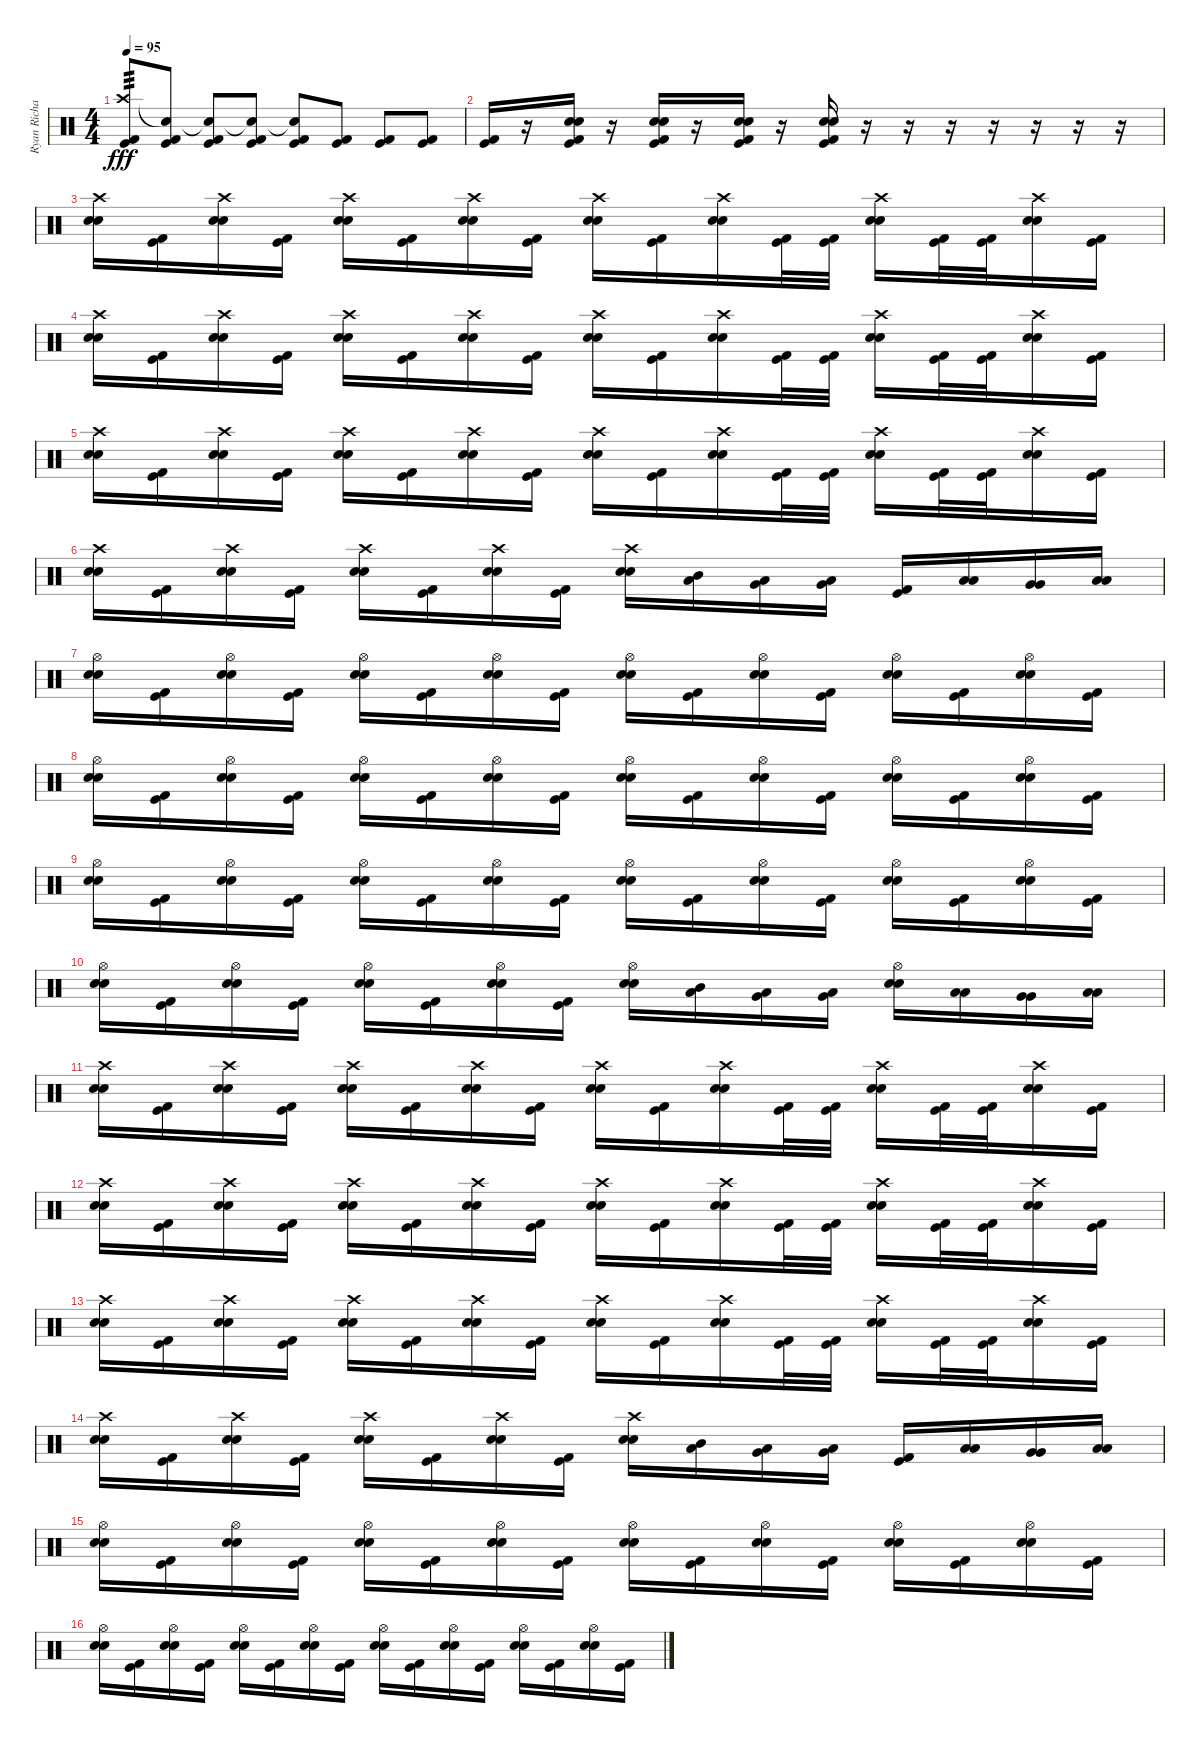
\track ("Ryan Richards" "Ryan Richa") {instrument percussion}
\staff {score}
\articulation defaults
\ts (4 4)
\tempo 95
\clef neutral
\ks c
("Kick (hit)" "Crash high (hit)" "Kick (hit) 2").8{tp 3 dy fff} ("Kick (hit)" "Snare (hit)"{t} "Kick (hit) 2").8 ("Kick (hit)" "Snare (hit)"{t} "Kick (hit) 2").8 ("Kick (hit)" "Snare (hit)"{t} "Kick (hit) 2").8 ("Kick (hit)" "Snare (hit)"{t} "Kick (hit) 2").8 ("Kick (hit)" "Kick (hit) 2").8 ("Kick (hit)" "Kick (hit) 2").8 ("Kick (hit)" "Kick (hit) 2").8 |
("Kick (hit)" "Kick (hit) 2").16 r.16 ("Kick (hit)" "Snare (hit) 2" "Electric Snare (hit)" "Kick (hit) 2").16 r.16 ("Kick (hit)" "Snare (hit) 2" "Electric Snare (hit)" "Kick (hit) 2").16 r.16 ("Kick (hit)" "Snare (hit) 2" "Electric Snare (hit)" "Kick (hit) 2").16 r.16 ("Kick (hit)" "Snare (hit) 2" "Electric Snare (hit)" "Kick (hit) 2").16 r.16 r.16 r.16 r.16 r.16 r.16 r.16 |
("Snare (hit) 2" "Crash high (hit)" "Electric Snare (hit)").16 ("Kick (hit)" "Kick (hit) 2").16 ("Snare (hit) 2" "Crash high (hit)" "Electric Snare (hit)").16 ("Kick (hit)" "Kick (hit) 2").16 ("Snare (hit) 2" "Crash high (hit)" "Electric Snare (hit)").16 ("Kick (hit)" "Kick (hit) 2").16 ("Snare (hit) 2" "Crash high (hit)" "Electric Snare (hit)").16 ("Kick (hit)" "Kick (hit) 2").16 ("Snare (hit) 2" "Crash high (hit)" "Electric Snare (hit)").16 ("Kick (hit)" "Kick (hit) 2").16 ("Snare (hit) 2" "Crash high (hit)" "Electric Snare (hit)").16 ("Kick (hit)" "Kick (hit) 2").32 ("Kick (hit)" "Kick (hit) 2").32 ("Snare (hit) 2" "Crash high (hit)" "Electric Snare (hit)").16 ("Kick (hit)" "Kick (hit) 2").32 ("Kick (hit)" "Kick (hit) 2").32 ("Snare (hit) 2" "Crash high (hit)" "Electric Snare (hit)").16 ("Kick (hit)" "Kick (hit) 2").16 |
("Snare (hit) 2" "Crash high (hit)" "Electric Snare (hit)").16 ("Kick (hit)" "Kick (hit) 2").16 ("Snare (hit) 2" "Crash high (hit)" "Electric Snare (hit)").16 ("Kick (hit)" "Kick (hit) 2").16 ("Snare (hit) 2" "Crash high (hit)" "Electric Snare (hit)").16 ("Kick (hit)" "Kick (hit) 2").16 ("Snare (hit) 2" "Crash high (hit)" "Electric Snare (hit)").16 ("Kick (hit)" "Kick (hit) 2").16 ("Snare (hit) 2" "Crash high (hit)" "Electric Snare (hit)").16 ("Kick (hit)" "Kick (hit) 2").16 ("Snare (hit) 2" "Crash high (hit)" "Electric Snare (hit)").16 ("Kick (hit)" "Kick (hit) 2").32 ("Kick (hit)" "Kick (hit) 2").32 ("Snare (hit) 2" "Crash high (hit)" "Electric Snare (hit)").16 ("Kick (hit)" "Kick (hit) 2").32 ("Kick (hit)" "Kick (hit) 2").32 ("Snare (hit) 2" "Crash high (hit)" "Electric Snare (hit)").16 ("Kick (hit)" "Kick (hit) 2").16 |
("Snare (hit) 2" "Crash high (hit)" "Electric Snare (hit)").16 ("Kick (hit)" "Kick (hit) 2").16 ("Snare (hit) 2" "Crash high (hit)" "Electric Snare (hit)").16 ("Kick (hit)" "Kick (hit) 2").16 ("Snare (hit) 2" "Crash high (hit)" "Electric Snare (hit)").16 ("Kick (hit)" "Kick (hit) 2").16 ("Snare (hit) 2" "Crash high (hit)" "Electric Snare (hit)").16 ("Kick (hit)" "Kick (hit) 2").16 ("Snare (hit) 2" "Crash high (hit)" "Electric Snare (hit)").16 ("Kick (hit)" "Kick (hit) 2").16 ("Snare (hit) 2" "Crash high (hit)" "Electric Snare (hit)").16 ("Kick (hit)" "Kick (hit) 2").32 ("Kick (hit)" "Kick (hit) 2").32 ("Snare (hit) 2" "Crash high (hit)" "Electric Snare (hit)").16 ("Kick (hit)" "Kick (hit) 2").32 ("Kick (hit)" "Kick (hit) 2").32 ("Snare (hit) 2" "Crash high (hit)" "Electric Snare (hit)").16 ("Kick (hit)" "Kick (hit) 2").16 |
("Snare (hit) 2" "Crash high (hit)" "Electric Snare (hit)").16 ("Kick (hit)" "Kick (hit) 2").16 ("Snare (hit) 2" "Crash high (hit)" "Electric Snare (hit)").16 ("Kick (hit)" "Kick (hit) 2").16 ("Snare (hit) 2" "Crash high (hit)" "Electric Snare (hit)").16 ("Kick (hit)" "Kick (hit) 2").16 ("Snare (hit) 2" "Crash high (hit)" "Electric Snare (hit)").16 ("Kick (hit)" "Kick (hit) 2").16 ("Snare (hit) 2" "Crash high (hit)" "Electric Snare (hit)").16 ("Mid Tom (hit)" "Low Tom (hit)").16 ("Low Tom (hit)" "Very Low Tom (hit)").16 ("Very Low Tom (hit)" "Low Floor Tom (hit)").16 ("Kick (hit)" "Kick (hit) 2").16 ("Low Tom (hit)" "Low Tom (hit)").16 ("Very Low Tom (hit)" "Very Low Tom (hit)").16 ("Low Floor Tom (hit)" "Low Floor Tom (hit)").16 |
("Snare (hit) 2" "Hi-Hat (open)" "Electric Snare (hit)").16 ("Kick (hit)" "Kick (hit) 2").16 ("Snare (hit) 2" "Hi-Hat (open)" "Electric Snare (hit)").16 ("Kick (hit)" "Kick (hit) 2").16 ("Snare (hit) 2" "Hi-Hat (open)" "Electric Snare (hit)").16 ("Kick (hit)" "Kick (hit) 2").16 ("Snare (hit) 2" "Hi-Hat (open)" "Electric Snare (hit)").16 ("Kick (hit)" "Kick (hit) 2").16 ("Snare (hit) 2" "Hi-Hat (open)" "Electric Snare (hit)").16 ("Kick (hit)" "Kick (hit) 2").16 ("Snare (hit) 2" "Hi-Hat (open)" "Electric Snare (hit)").16 ("Kick (hit)" "Kick (hit) 2").16 ("Snare (hit) 2" "Hi-Hat (open)" "Electric Snare (hit)").16 ("Kick (hit)" "Kick (hit) 2").16 ("Snare (hit) 2" "Hi-Hat (open)" "Electric Snare (hit)").16 ("Kick (hit)" "Kick (hit) 2").16 |
("Snare (hit) 2" "Hi-Hat (open)" "Electric Snare (hit)").16 ("Kick (hit)" "Kick (hit) 2").16 ("Snare (hit) 2" "Hi-Hat (open)" "Electric Snare (hit)").16 ("Kick (hit)" "Kick (hit) 2").16 ("Snare (hit) 2" "Hi-Hat (open)" "Electric Snare (hit)").16 ("Kick (hit)" "Kick (hit) 2").16 ("Snare (hit) 2" "Hi-Hat (open)" "Electric Snare (hit)").16 ("Kick (hit)" "Kick (hit) 2").16 ("Snare (hit) 2" "Hi-Hat (open)" "Electric Snare (hit)").16 ("Kick (hit)" "Kick (hit) 2").16 ("Snare (hit) 2" "Hi-Hat (open)" "Electric Snare (hit)").16 ("Kick (hit)" "Kick (hit) 2").16 ("Snare (hit) 2" "Hi-Hat (open)" "Electric Snare (hit)").16 ("Kick (hit)" "Kick (hit) 2").16 ("Snare (hit) 2" "Hi-Hat (open)" "Electric Snare (hit)").16 ("Kick (hit)" "Kick (hit) 2").16 |
("Snare (hit) 2" "Hi-Hat (open)" "Electric Snare (hit)").16 ("Kick (hit)" "Kick (hit) 2").16 ("Snare (hit) 2" "Hi-Hat (open)" "Electric Snare (hit)").16 ("Kick (hit)" "Kick (hit) 2").16 ("Snare (hit) 2" "Hi-Hat (open)" "Electric Snare (hit)").16 ("Kick (hit)" "Kick (hit) 2").16 ("Snare (hit) 2" "Hi-Hat (open)" "Electric Snare (hit)").16 ("Kick (hit)" "Kick (hit) 2").16 ("Snare (hit) 2" "Hi-Hat (open)" "Electric Snare (hit)").16 ("Kick (hit)" "Kick (hit) 2").16 ("Snare (hit) 2" "Hi-Hat (open)" "Electric Snare (hit)").16 ("Kick (hit)" "Kick (hit) 2").16 ("Snare (hit) 2" "Hi-Hat (open)" "Electric Snare (hit)").16 ("Kick (hit)" "Kick (hit) 2").16 ("Snare (hit) 2" "Hi-Hat (open)" "Electric Snare (hit)").16 ("Kick (hit)" "Kick (hit) 2").16 |
("Snare (hit) 2" "Hi-Hat (open)" "Electric Snare (hit)").16 ("Kick (hit)" "Kick (hit) 2").16 ("Snare (hit) 2" "Hi-Hat (open)" "Electric Snare (hit)").16 ("Kick (hit)" "Kick (hit) 2").16 ("Snare (hit) 2" "Hi-Hat (open)" "Electric Snare (hit)").16 ("Kick (hit)" "Kick (hit) 2").16 ("Snare (hit) 2" "Hi-Hat (open)" "Electric Snare (hit)").16 ("Kick (hit)" "Kick (hit) 2").16 ("Snare (hit) 2" "Hi-Hat (open)" "Electric Snare (hit)").16 ("Mid Tom (hit)" "Low Tom (hit)").16 ("Low Tom (hit)" "Very Low Tom (hit)").16 ("Very Low Tom (hit)" "Low Floor Tom (hit)").16 ("Snare (hit) 2" "Hi-Hat (open)" "Electric Snare (hit)").16 ("Low Tom (hit)" "Low Tom (hit)").16 ("Very Low Tom (hit)" "Very Low Tom (hit)").16 ("Low Floor Tom (hit)" "Low Floor Tom (hit)").16 |
("Snare (hit) 2" "Crash high (hit)" "Electric Snare (hit)").16 ("Kick (hit)" "Kick (hit) 2").16 ("Snare (hit) 2" "Crash high (hit)" "Electric Snare (hit)").16 ("Kick (hit)" "Kick (hit) 2").16 ("Snare (hit) 2" "Crash high (hit)" "Electric Snare (hit)").16 ("Kick (hit)" "Kick (hit) 2").16 ("Snare (hit) 2" "Crash high (hit)" "Electric Snare (hit)").16 ("Kick (hit)" "Kick (hit) 2").16 ("Snare (hit) 2" "Crash high (hit)" "Electric Snare (hit)").16 ("Kick (hit)" "Kick (hit) 2").16 ("Snare (hit) 2" "Crash high (hit)" "Electric Snare (hit)").16 ("Kick (hit)" "Kick (hit) 2").32 ("Kick (hit)" "Kick (hit) 2").32 ("Snare (hit) 2" "Crash high (hit)" "Electric Snare (hit)").16 ("Kick (hit)" "Kick (hit) 2").32 ("Kick (hit)" "Kick (hit) 2").32 ("Snare (hit) 2" "Crash high (hit)" "Electric Snare (hit)").16 ("Kick (hit)" "Kick (hit) 2").16 |
("Snare (hit) 2" "Crash high (hit)" "Electric Snare (hit)").16 ("Kick (hit)" "Kick (hit) 2").16 ("Snare (hit) 2" "Crash high (hit)" "Electric Snare (hit)").16 ("Kick (hit)" "Kick (hit) 2").16 ("Snare (hit) 2" "Crash high (hit)" "Electric Snare (hit)").16 ("Kick (hit)" "Kick (hit) 2").16 ("Snare (hit) 2" "Crash high (hit)" "Electric Snare (hit)").16 ("Kick (hit)" "Kick (hit) 2").16 ("Snare (hit) 2" "Crash high (hit)" "Electric Snare (hit)").16 ("Kick (hit)" "Kick (hit) 2").16 ("Snare (hit) 2" "Crash high (hit)" "Electric Snare (hit)").16 ("Kick (hit)" "Kick (hit) 2").32 ("Kick (hit)" "Kick (hit) 2").32 ("Snare (hit) 2" "Crash high (hit)" "Electric Snare (hit)").16 ("Kick (hit)" "Kick (hit) 2").32 ("Kick (hit)" "Kick (hit) 2").32 ("Snare (hit) 2" "Crash high (hit)" "Electric Snare (hit)").16 ("Kick (hit)" "Kick (hit) 2").16 |
("Snare (hit) 2" "Crash high (hit)" "Electric Snare (hit)").16 ("Kick (hit)" "Kick (hit) 2").16 ("Snare (hit) 2" "Crash high (hit)" "Electric Snare (hit)").16 ("Kick (hit)" "Kick (hit) 2").16 ("Snare (hit) 2" "Crash high (hit)" "Electric Snare (hit)").16 ("Kick (hit)" "Kick (hit) 2").16 ("Snare (hit) 2" "Crash high (hit)" "Electric Snare (hit)").16 ("Kick (hit)" "Kick (hit) 2").16 ("Snare (hit) 2" "Crash high (hit)" "Electric Snare (hit)").16 ("Kick (hit)" "Kick (hit) 2").16 ("Snare (hit) 2" "Crash high (hit)" "Electric Snare (hit)").16 ("Kick (hit)" "Kick (hit) 2").32 ("Kick (hit)" "Kick (hit) 2").32 ("Snare (hit) 2" "Crash high (hit)" "Electric Snare (hit)").16 ("Kick (hit)" "Kick (hit) 2").32 ("Kick (hit)" "Kick (hit) 2").32 ("Snare (hit) 2" "Crash high (hit)" "Electric Snare (hit)").16 ("Kick (hit)" "Kick (hit) 2").16 |
("Snare (hit) 2" "Crash high (hit)" "Electric Snare (hit)").16 ("Kick (hit)" "Kick (hit) 2").16 ("Snare (hit) 2" "Crash high (hit)" "Electric Snare (hit)").16 ("Kick (hit)" "Kick (hit) 2").16 ("Snare (hit) 2" "Crash high (hit)" "Electric Snare (hit)").16 ("Kick (hit)" "Kick (hit) 2").16 ("Snare (hit) 2" "Crash high (hit)" "Electric Snare (hit)").16 ("Kick (hit)" "Kick (hit) 2").16 ("Snare (hit) 2" "Crash high (hit)" "Electric Snare (hit)").16 ("Mid Tom (hit)" "Low Tom (hit)").16 ("Low Tom (hit)" "Very Low Tom (hit)").16 ("Very Low Tom (hit)" "Low Floor Tom (hit)").16 ("Kick (hit)" "Kick (hit) 2").16 ("Low Tom (hit)" "Low Tom (hit)").16 ("Very Low Tom (hit)" "Very Low Tom (hit)").16 ("Low Floor Tom (hit)" "Low Floor Tom (hit)").16 |
("Snare (hit) 2" "Hi-Hat (open)" "Electric Snare (hit)").16 ("Kick (hit)" "Kick (hit) 2").16 ("Snare (hit) 2" "Hi-Hat (open)" "Electric Snare (hit)").16 ("Kick (hit)" "Kick (hit) 2").16 ("Snare (hit) 2" "Hi-Hat (open)" "Electric Snare (hit)").16 ("Kick (hit)" "Kick (hit) 2").16 ("Snare (hit) 2" "Hi-Hat (open)" "Electric Snare (hit)").16 ("Kick (hit)" "Kick (hit) 2").16 ("Snare (hit) 2" "Hi-Hat (open)" "Electric Snare (hit)").16 ("Kick (hit)" "Kick (hit) 2").16 ("Snare (hit) 2" "Hi-Hat (open)" "Electric Snare (hit)").16 ("Kick (hit)" "Kick (hit) 2").16 ("Snare (hit) 2" "Hi-Hat (open)" "Electric Snare (hit)").16 ("Kick (hit)" "Kick (hit) 2").16 ("Snare (hit) 2" "Hi-Hat (open)" "Electric Snare (hit)").16 ("Kick (hit)" "Kick (hit) 2").16 |
("Snare (hit) 2" "Hi-Hat (open)" "Electric Snare (hit)").16 ("Kick (hit)" "Kick (hit) 2").16 ("Snare (hit) 2" "Hi-Hat (open)" "Electric Snare (hit)").16 ("Kick (hit)" "Kick (hit) 2").16 ("Snare (hit) 2" "Hi-Hat (open)" "Electric Snare (hit)").16 ("Kick (hit)" "Kick (hit) 2").16 ("Snare (hit) 2" "Hi-Hat (open)" "Electric Snare (hit)").16 ("Kick (hit)" "Kick (hit) 2").16 ("Snare (hit) 2" "Hi-Hat (open)" "Electric Snare (hit)").16 ("Kick (hit)" "Kick (hit) 2").16 ("Snare (hit) 2" "Hi-Hat (open)" "Electric Snare (hit)").16 ("Kick (hit)" "Kick (hit) 2").16 ("Snare (hit) 2" "Hi-Hat (open)" "Electric Snare (hit)").16 ("Kick (hit)" "Kick (hit) 2").16 ("Snare (hit) 2" "Hi-Hat (open)" "Electric Snare (hit)").16 ("Kick (hit)" "Kick (hit) 2").16
